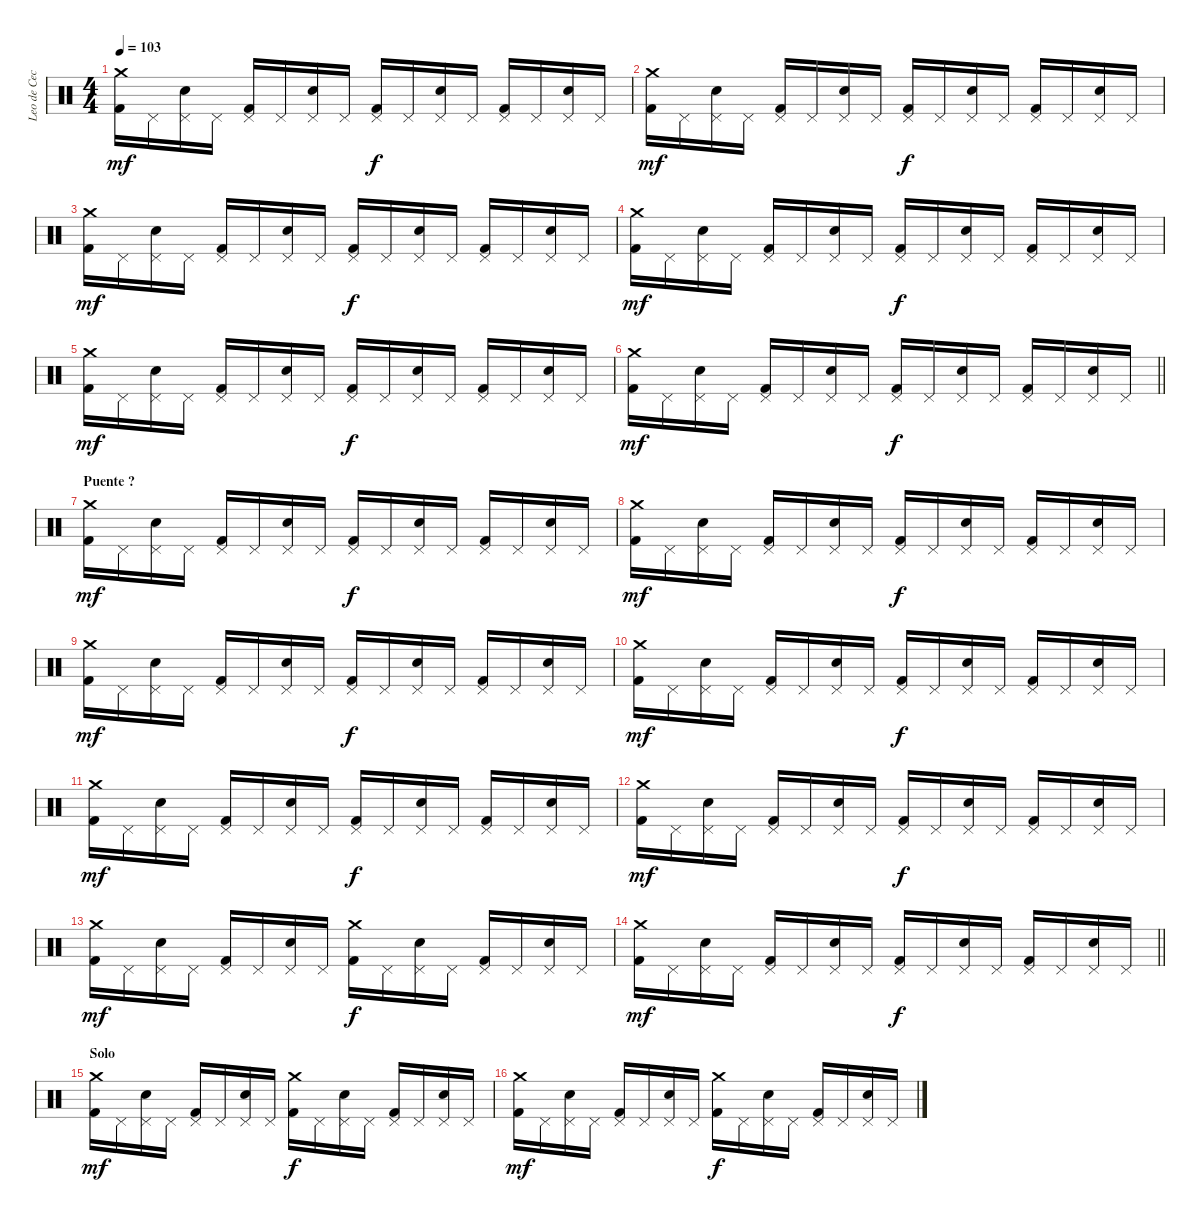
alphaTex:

\track ("Leo de Cecco" "Leo de Cec") {instrument percussion}
\staff {score}
\articulation defaults
\ts (4 4)
\tempo 103
\clef neutral
\ks c
("Crash medium (hit)" "Kick (hit) 2").16{dy mf} "Pedal Hi-Hat (hit)".16 ("Pedal Hi-Hat (hit)" "Snare (hit) 2").16 "Pedal Hi-Hat (hit)".16 ("Pedal Hi-Hat (hit)" "Kick (hit) 2").16 "Pedal Hi-Hat (hit)".16 ("Pedal Hi-Hat (hit)" "Snare (hit) 2").16 "Pedal Hi-Hat (hit)".16 ("Pedal Hi-Hat (hit)" "Kick (hit) 2").16{dy f} "Pedal Hi-Hat (hit)".16 ("Pedal Hi-Hat (hit)" "Snare (hit) 2").16 "Pedal Hi-Hat (hit)".16 ("Pedal Hi-Hat (hit)" "Kick (hit) 2").16 "Pedal Hi-Hat (hit)".16 ("Pedal Hi-Hat (hit)" "Snare (hit) 2").16 "Pedal Hi-Hat (hit)".16 |
("Crash medium (hit)" "Kick (hit) 2").16{dy mf} "Pedal Hi-Hat (hit)".16 ("Pedal Hi-Hat (hit)" "Snare (hit) 2").16 "Pedal Hi-Hat (hit)".16 ("Pedal Hi-Hat (hit)" "Kick (hit) 2").16 "Pedal Hi-Hat (hit)".16 ("Pedal Hi-Hat (hit)" "Snare (hit) 2").16 "Pedal Hi-Hat (hit)".16 ("Pedal Hi-Hat (hit)" "Kick (hit) 2").16{dy f} "Pedal Hi-Hat (hit)".16 ("Pedal Hi-Hat (hit)" "Snare (hit) 2").16 "Pedal Hi-Hat (hit)".16 ("Pedal Hi-Hat (hit)" "Kick (hit) 2").16 "Pedal Hi-Hat (hit)".16 ("Pedal Hi-Hat (hit)" "Snare (hit) 2").16 "Pedal Hi-Hat (hit)".16 |
("Crash medium (hit)" "Kick (hit) 2").16{dy mf} "Pedal Hi-Hat (hit)".16 ("Pedal Hi-Hat (hit)" "Snare (hit) 2").16 "Pedal Hi-Hat (hit)".16 ("Pedal Hi-Hat (hit)" "Kick (hit) 2").16 "Pedal Hi-Hat (hit)".16 ("Pedal Hi-Hat (hit)" "Snare (hit) 2").16 "Pedal Hi-Hat (hit)".16 ("Pedal Hi-Hat (hit)" "Kick (hit) 2").16{dy f} "Pedal Hi-Hat (hit)".16 ("Pedal Hi-Hat (hit)" "Snare (hit) 2").16 "Pedal Hi-Hat (hit)".16 ("Pedal Hi-Hat (hit)" "Kick (hit) 2").16 "Pedal Hi-Hat (hit)".16 ("Pedal Hi-Hat (hit)" "Snare (hit) 2").16 "Pedal Hi-Hat (hit)".16 |
("Crash medium (hit)" "Kick (hit) 2").16{dy mf} "Pedal Hi-Hat (hit)".16 ("Pedal Hi-Hat (hit)" "Snare (hit) 2").16 "Pedal Hi-Hat (hit)".16 ("Pedal Hi-Hat (hit)" "Kick (hit) 2").16 "Pedal Hi-Hat (hit)".16 ("Pedal Hi-Hat (hit)" "Snare (hit) 2").16 "Pedal Hi-Hat (hit)".16 ("Pedal Hi-Hat (hit)" "Kick (hit) 2").16{dy f} "Pedal Hi-Hat (hit)".16 ("Pedal Hi-Hat (hit)" "Snare (hit) 2").16 "Pedal Hi-Hat (hit)".16 ("Pedal Hi-Hat (hit)" "Kick (hit) 2").16 "Pedal Hi-Hat (hit)".16 ("Pedal Hi-Hat (hit)" "Snare (hit) 2").16 "Pedal Hi-Hat (hit)".16 |
("Crash medium (hit)" "Kick (hit) 2").16{dy mf} "Pedal Hi-Hat (hit)".16 ("Pedal Hi-Hat (hit)" "Snare (hit) 2").16 "Pedal Hi-Hat (hit)".16 ("Pedal Hi-Hat (hit)" "Kick (hit) 2").16 "Pedal Hi-Hat (hit)".16 ("Pedal Hi-Hat (hit)" "Snare (hit) 2").16 "Pedal Hi-Hat (hit)".16 ("Pedal Hi-Hat (hit)" "Kick (hit) 2").16{dy f} "Pedal Hi-Hat (hit)".16 ("Pedal Hi-Hat (hit)" "Snare (hit) 2").16 "Pedal Hi-Hat (hit)".16 ("Pedal Hi-Hat (hit)" "Kick (hit) 2").16 "Pedal Hi-Hat (hit)".16 ("Pedal Hi-Hat (hit)" "Snare (hit) 2").16 "Pedal Hi-Hat (hit)".16 |
\barLineRight lightlight
("Crash medium (hit)" "Kick (hit) 2").16{dy mf} "Pedal Hi-Hat (hit)".16 ("Pedal Hi-Hat (hit)" "Snare (hit) 2").16 "Pedal Hi-Hat (hit)".16 ("Pedal Hi-Hat (hit)" "Kick (hit) 2").16 "Pedal Hi-Hat (hit)".16 ("Pedal Hi-Hat (hit)" "Snare (hit) 2").16 "Pedal Hi-Hat (hit)".16 ("Pedal Hi-Hat (hit)" "Kick (hit) 2").16{dy f} "Pedal Hi-Hat (hit)".16 ("Pedal Hi-Hat (hit)" "Snare (hit) 2").16 "Pedal Hi-Hat (hit)".16 ("Pedal Hi-Hat (hit)" "Kick (hit) 2").16 "Pedal Hi-Hat (hit)".16 ("Pedal Hi-Hat (hit)" "Snare (hit) 2").16 "Pedal Hi-Hat (hit)".16 |
\section ("" "Puente ?")
("Crash medium (hit)" "Kick (hit) 2").16{dy mf} "Pedal Hi-Hat (hit)".16 ("Pedal Hi-Hat (hit)" "Snare (hit) 2").16 "Pedal Hi-Hat (hit)".16 ("Pedal Hi-Hat (hit)" "Kick (hit) 2").16 "Pedal Hi-Hat (hit)".16 ("Pedal Hi-Hat (hit)" "Snare (hit) 2").16 "Pedal Hi-Hat (hit)".16 ("Pedal Hi-Hat (hit)" "Kick (hit) 2").16{dy f} "Pedal Hi-Hat (hit)".16 ("Pedal Hi-Hat (hit)" "Snare (hit) 2").16 "Pedal Hi-Hat (hit)".16 ("Pedal Hi-Hat (hit)" "Kick (hit) 2").16 "Pedal Hi-Hat (hit)".16 ("Pedal Hi-Hat (hit)" "Snare (hit) 2").16 "Pedal Hi-Hat (hit)".16 |
("Crash medium (hit)" "Kick (hit) 2").16{dy mf} "Pedal Hi-Hat (hit)".16 ("Pedal Hi-Hat (hit)" "Snare (hit) 2").16 "Pedal Hi-Hat (hit)".16 ("Pedal Hi-Hat (hit)" "Kick (hit) 2").16 "Pedal Hi-Hat (hit)".16 ("Pedal Hi-Hat (hit)" "Snare (hit) 2").16 "Pedal Hi-Hat (hit)".16 ("Pedal Hi-Hat (hit)" "Kick (hit) 2").16{dy f} "Pedal Hi-Hat (hit)".16 ("Pedal Hi-Hat (hit)" "Snare (hit) 2").16 "Pedal Hi-Hat (hit)".16 ("Pedal Hi-Hat (hit)" "Kick (hit) 2").16 "Pedal Hi-Hat (hit)".16 ("Pedal Hi-Hat (hit)" "Snare (hit) 2").16 "Pedal Hi-Hat (hit)".16 |
("Crash medium (hit)" "Kick (hit) 2").16{dy mf} "Pedal Hi-Hat (hit)".16 ("Pedal Hi-Hat (hit)" "Snare (hit) 2").16 "Pedal Hi-Hat (hit)".16 ("Pedal Hi-Hat (hit)" "Kick (hit) 2").16 "Pedal Hi-Hat (hit)".16 ("Pedal Hi-Hat (hit)" "Snare (hit) 2").16 "Pedal Hi-Hat (hit)".16 ("Pedal Hi-Hat (hit)" "Kick (hit) 2").16{dy f} "Pedal Hi-Hat (hit)".16 ("Pedal Hi-Hat (hit)" "Snare (hit) 2").16 "Pedal Hi-Hat (hit)".16 ("Pedal Hi-Hat (hit)" "Kick (hit) 2").16 "Pedal Hi-Hat (hit)".16 ("Pedal Hi-Hat (hit)" "Snare (hit) 2").16 "Pedal Hi-Hat (hit)".16 |
("Crash medium (hit)" "Kick (hit) 2").16{dy mf} "Pedal Hi-Hat (hit)".16 ("Pedal Hi-Hat (hit)" "Snare (hit) 2").16 "Pedal Hi-Hat (hit)".16 ("Pedal Hi-Hat (hit)" "Kick (hit) 2").16 "Pedal Hi-Hat (hit)".16 ("Pedal Hi-Hat (hit)" "Snare (hit) 2").16 "Pedal Hi-Hat (hit)".16 ("Pedal Hi-Hat (hit)" "Kick (hit) 2").16{dy f} "Pedal Hi-Hat (hit)".16 ("Pedal Hi-Hat (hit)" "Snare (hit) 2").16 "Pedal Hi-Hat (hit)".16 ("Pedal Hi-Hat (hit)" "Kick (hit) 2").16 "Pedal Hi-Hat (hit)".16 ("Pedal Hi-Hat (hit)" "Snare (hit) 2").16 "Pedal Hi-Hat (hit)".16 |
("Crash medium (hit)" "Kick (hit) 2").16{dy mf} "Pedal Hi-Hat (hit)".16 ("Pedal Hi-Hat (hit)" "Snare (hit) 2").16 "Pedal Hi-Hat (hit)".16 ("Pedal Hi-Hat (hit)" "Kick (hit) 2").16 "Pedal Hi-Hat (hit)".16 ("Pedal Hi-Hat (hit)" "Snare (hit) 2").16 "Pedal Hi-Hat (hit)".16 ("Pedal Hi-Hat (hit)" "Kick (hit) 2").16{dy f} "Pedal Hi-Hat (hit)".16 ("Pedal Hi-Hat (hit)" "Snare (hit) 2").16 "Pedal Hi-Hat (hit)".16 ("Pedal Hi-Hat (hit)" "Kick (hit) 2").16 "Pedal Hi-Hat (hit)".16 ("Pedal Hi-Hat (hit)" "Snare (hit) 2").16 "Pedal Hi-Hat (hit)".16 |
("Crash medium (hit)" "Kick (hit) 2").16{dy mf} "Pedal Hi-Hat (hit)".16 ("Pedal Hi-Hat (hit)" "Snare (hit) 2").16 "Pedal Hi-Hat (hit)".16 ("Pedal Hi-Hat (hit)" "Kick (hit) 2").16 "Pedal Hi-Hat (hit)".16 ("Pedal Hi-Hat (hit)" "Snare (hit) 2").16 "Pedal Hi-Hat (hit)".16 ("Pedal Hi-Hat (hit)" "Kick (hit) 2").16{dy f} "Pedal Hi-Hat (hit)".16 ("Pedal Hi-Hat (hit)" "Snare (hit) 2").16 "Pedal Hi-Hat (hit)".16 ("Pedal Hi-Hat (hit)" "Kick (hit) 2").16 "Pedal Hi-Hat (hit)".16 ("Pedal Hi-Hat (hit)" "Snare (hit) 2").16 "Pedal Hi-Hat (hit)".16 |
("Crash medium (hit)" "Kick (hit) 2").16{dy mf} "Pedal Hi-Hat (hit)".16 ("Pedal Hi-Hat (hit)" "Snare (hit) 2").16 "Pedal Hi-Hat (hit)".16 ("Pedal Hi-Hat (hit)" "Kick (hit) 2").16 "Pedal Hi-Hat (hit)".16 ("Pedal Hi-Hat (hit)" "Snare (hit) 2").16 "Pedal Hi-Hat (hit)".16 ("Crash medium (hit)" "Kick (hit) 2").16{dy f} "Pedal Hi-Hat (hit)".16 ("Pedal Hi-Hat (hit)" "Snare (hit) 2").16 "Pedal Hi-Hat (hit)".16 ("Pedal Hi-Hat (hit)" "Kick (hit) 2").16 "Pedal Hi-Hat (hit)".16 ("Pedal Hi-Hat (hit)" "Snare (hit) 2").16 "Pedal Hi-Hat (hit)".16 |
\barLineRight lightlight
("Crash medium (hit)" "Kick (hit) 2").16{dy mf} "Pedal Hi-Hat (hit)".16 ("Pedal Hi-Hat (hit)" "Snare (hit) 2").16 "Pedal Hi-Hat (hit)".16 ("Pedal Hi-Hat (hit)" "Kick (hit) 2").16 "Pedal Hi-Hat (hit)".16 ("Pedal Hi-Hat (hit)" "Snare (hit) 2").16 "Pedal Hi-Hat (hit)".16 ("Pedal Hi-Hat (hit)" "Kick (hit) 2").16{dy f} "Pedal Hi-Hat (hit)".16 ("Pedal Hi-Hat (hit)" "Snare (hit) 2").16 "Pedal Hi-Hat (hit)".16 ("Pedal Hi-Hat (hit)" "Kick (hit) 2").16 "Pedal Hi-Hat (hit)".16 ("Pedal Hi-Hat (hit)" "Snare (hit) 2").16 "Pedal Hi-Hat (hit)".16 |
\section ("" "Solo")
("Crash medium (hit)" "Kick (hit) 2").16{dy mf} "Pedal Hi-Hat (hit)".16 ("Pedal Hi-Hat (hit)" "Snare (hit) 2").16 "Pedal Hi-Hat (hit)".16 ("Pedal Hi-Hat (hit)" "Kick (hit) 2").16 "Pedal Hi-Hat (hit)".16 ("Pedal Hi-Hat (hit)" "Snare (hit) 2").16 "Pedal Hi-Hat (hit)".16 ("Crash medium (hit)" "Kick (hit) 2").16{dy f} "Pedal Hi-Hat (hit)".16 ("Pedal Hi-Hat (hit)" "Snare (hit) 2").16 "Pedal Hi-Hat (hit)".16 ("Pedal Hi-Hat (hit)" "Kick (hit) 2").16 "Pedal Hi-Hat (hit)".16 ("Pedal Hi-Hat (hit)" "Snare (hit) 2").16 "Pedal Hi-Hat (hit)".16 |
("Crash medium (hit)" "Kick (hit) 2").16{dy mf} "Pedal Hi-Hat (hit)".16 ("Pedal Hi-Hat (hit)" "Snare (hit) 2").16 "Pedal Hi-Hat (hit)".16 ("Pedal Hi-Hat (hit)" "Kick (hit) 2").16 "Pedal Hi-Hat (hit)".16 ("Pedal Hi-Hat (hit)" "Snare (hit) 2").16 "Pedal Hi-Hat (hit)".16 ("Crash medium (hit)" "Kick (hit) 2").16{dy f} "Pedal Hi-Hat (hit)".16 ("Pedal Hi-Hat (hit)" "Snare (hit) 2").16 "Pedal Hi-Hat (hit)".16 ("Pedal Hi-Hat (hit)" "Kick (hit) 2").16 "Pedal Hi-Hat (hit)".16 ("Pedal Hi-Hat (hit)" "Snare (hit) 2").16 "Pedal Hi-Hat (hit)".16
